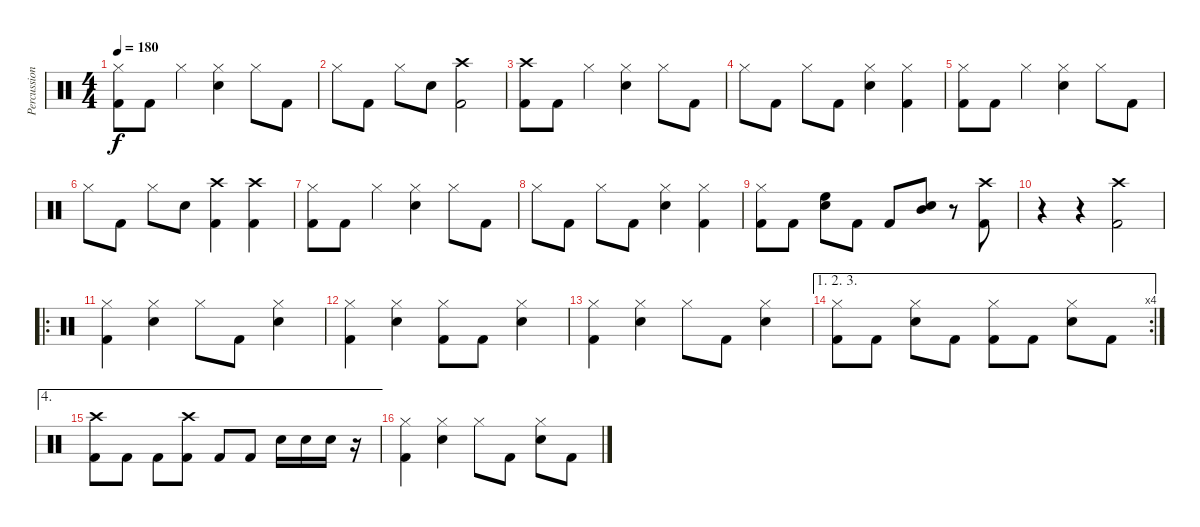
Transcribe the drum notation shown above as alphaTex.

\track ("Percussion" "Percussion") {instrument percussion}
\staff {score}
\articulation defaults
\ts (4 4)
\tempo 180
\clef neutral
\ks c
("Hi-Hat (closed)" "Kick (hit) 2").8{dy f} "Kick (hit) 2".8 "Hi-Hat (closed)".4 ("Hi-Hat (closed)" "Snare (hit) 2").4 "Hi-Hat (closed)".8 "Kick (hit) 2".8 |
"Hi-Hat (closed)".8 "Kick (hit) 2".8 "Hi-Hat (closed)".8 "Snare (hit) 2".8 ("Crash high (hit)" "Kick (hit) 2").2 |
("Crash high (hit)" "Kick (hit) 2").8 "Kick (hit) 2".8 "Hi-Hat (closed)".4 ("Hi-Hat (closed)" "Snare (hit) 2").4 "Hi-Hat (closed)".8 "Kick (hit) 2".8 |
"Hi-Hat (closed)".8 "Kick (hit) 2".8 "Hi-Hat (closed)".8 "Kick (hit) 2".8 ("Hi-Hat (closed)" "Snare (hit) 2").4 ("Hi-Hat (closed)" "Kick (hit) 2").4 |
("Hi-Hat (closed)" "Kick (hit) 2").8 "Kick (hit) 2".8 "Hi-Hat (closed)".4 ("Hi-Hat (closed)" "Snare (hit) 2").4 "Hi-Hat (closed)".8 "Kick (hit) 2".8 |
"Hi-Hat (closed)".8 "Kick (hit) 2".8 "Hi-Hat (closed)".8 "Snare (hit) 2".8 ("Crash high (hit)" "Kick (hit) 2").4 ("Crash high (hit)" "Kick (hit) 2").4 |
("Hi-Hat (closed)" "Kick (hit) 2").8 "Kick (hit) 2".8 "Hi-Hat (closed)".4 ("Hi-Hat (closed)" "Snare (hit) 2").4 "Hi-Hat (closed)".8 "Kick (hit) 2".8 |
"Hi-Hat (closed)".8 "Kick (hit) 2".8 "Hi-Hat (closed)".8 "Kick (hit) 2".8 ("Hi-Hat (closed)" "Snare (hit) 2").4 ("Hi-Hat (closed)" "Kick (hit) 2").4 |
("Hi-Hat (closed)" "Kick (hit) 2").8 "Kick (hit) 2".8 ("High Floor Tom (hit)" "Snare (hit) 2").8 "Kick (hit) 2".8 "Kick (hit) 2".8 ("Mid Tom (hit)" "Snare (hit) 2").8 r.8 ("Crash high (hit)" "Kick (hit) 2").8 |
r.4 r.4 ("Crash high (hit)" "Kick (hit) 2").2 |
\ro
("Hi-Hat (closed)" "Kick (hit) 2").4 ("Hi-Hat (closed)" "Snare (hit) 2").4 "Hi-Hat (closed)".8 "Kick (hit) 2".8 ("Hi-Hat (closed)" "Snare (hit) 2").4 |
("Hi-Hat (closed)" "Kick (hit) 2").4 ("Hi-Hat (closed)" "Snare (hit) 2").4 ("Hi-Hat (closed)" "Kick (hit) 2").8 "Kick (hit) 2".8 ("Hi-Hat (closed)" "Snare (hit) 2").4 |
("Hi-Hat (closed)" "Kick (hit) 2").4 ("Hi-Hat (closed)" "Snare (hit) 2").4 "Hi-Hat (closed)".8 "Kick (hit) 2".8 ("Hi-Hat (closed)" "Snare (hit) 2").4 |
\ae (1 2 3)
\rc 4
("Hi-Hat (closed)" "Kick (hit) 2").8 "Kick (hit) 2".8 ("Hi-Hat (closed)" "Snare (hit) 2").8 "Kick (hit) 2".8 ("Hi-Hat (closed)" "Kick (hit) 2").8 "Kick (hit) 2".8 ("Hi-Hat (closed)" "Snare (hit) 2").8 "Kick (hit) 2".8 |
\ae 4
("Crash high (hit)" "Kick (hit) 2").8 "Kick (hit) 2".8 "Kick (hit) 2".8 ("Crash high (hit)" "Kick (hit) 2").8 "Kick (hit) 2".8 "Kick (hit) 2".8 "Snare (hit) 2".16 "Snare (hit) 2".16 "Snare (hit) 2".16 r.16 |
("Hi-Hat (closed)" "Kick (hit) 2").4 ("Hi-Hat (closed)" "Snare (hit) 2").4 "Hi-Hat (closed)".8 "Kick (hit) 2".8 ("Hi-Hat (closed)" "Snare (hit) 2").8 "Kick (hit) 2".8
